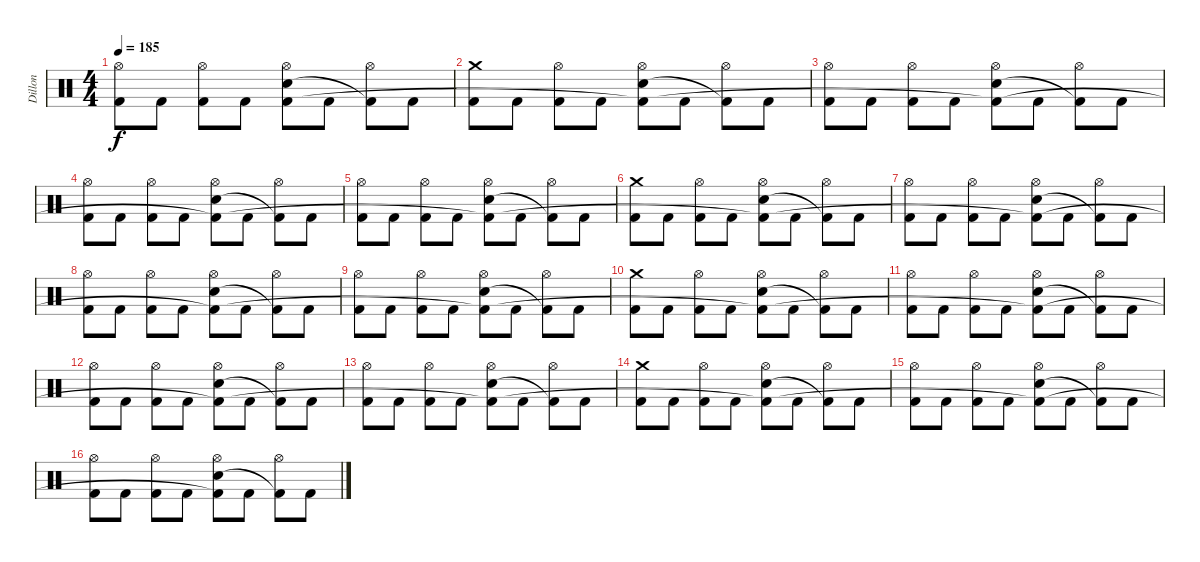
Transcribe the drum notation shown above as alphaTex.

\track ("Dillon" "Dillon") {instrument percussion}
\staff {score}
\articulation defaults
\ts (4 4)
\tempo 185
\clef neutral
\ks c
("Hi-Hat (open)" "Kick (hit) 2").8{dy f} "Kick (hit) 2".8 ("Hi-Hat (open)" "Kick (hit) 2").8 "Kick (hit) 2".8 ("Hi-Hat (open)" "Electric Snare (hit)" "Kick (hit) 2"{t}).8 "Kick (hit) 2".8 ("Hi-Hat (open)" "Kick (hit) 2"{t}).8 "Kick (hit) 2".8 |
("Crash medium (hit)" "Kick (hit) 2").8 "Kick (hit) 2".8 ("Hi-Hat (open)" "Kick (hit) 2").8 "Kick (hit) 2".8 ("Hi-Hat (open)" "Electric Snare (hit)" "Kick (hit) 2"{t}).8 "Kick (hit) 2".8 ("Hi-Hat (open)" "Kick (hit) 2"{t}).8 "Kick (hit) 2".8 |
("Hi-Hat (open)" "Kick (hit) 2").8 "Kick (hit) 2".8 ("Hi-Hat (open)" "Kick (hit) 2").8 "Kick (hit) 2".8 ("Hi-Hat (open)" "Electric Snare (hit)" "Kick (hit) 2"{t}).8 "Kick (hit) 2".8 ("Hi-Hat (open)" "Kick (hit) 2"{t}).8 "Kick (hit) 2".8 |
("Hi-Hat (open)" "Kick (hit) 2").8 "Kick (hit) 2".8 ("Hi-Hat (open)" "Kick (hit) 2").8 "Kick (hit) 2".8 ("Hi-Hat (open)" "Electric Snare (hit)" "Kick (hit) 2"{t}).8 "Kick (hit) 2".8 ("Hi-Hat (open)" "Kick (hit) 2"{t}).8 "Kick (hit) 2".8 |
("Hi-Hat (open)" "Kick (hit) 2").8 "Kick (hit) 2".8 ("Hi-Hat (open)" "Kick (hit) 2").8 "Kick (hit) 2".8 ("Hi-Hat (open)" "Electric Snare (hit)" "Kick (hit) 2"{t}).8 "Kick (hit) 2".8 ("Hi-Hat (open)" "Kick (hit) 2"{t}).8 "Kick (hit) 2".8 |
("Crash medium (hit)" "Kick (hit) 2").8 "Kick (hit) 2".8 ("Hi-Hat (open)" "Kick (hit) 2").8 "Kick (hit) 2".8 ("Hi-Hat (open)" "Electric Snare (hit)" "Kick (hit) 2"{t}).8 "Kick (hit) 2".8 ("Hi-Hat (open)" "Kick (hit) 2"{t}).8 "Kick (hit) 2".8 |
("Hi-Hat (open)" "Kick (hit) 2").8 "Kick (hit) 2".8 ("Hi-Hat (open)" "Kick (hit) 2").8 "Kick (hit) 2".8 ("Hi-Hat (open)" "Electric Snare (hit)" "Kick (hit) 2"{t}).8 "Kick (hit) 2".8 ("Hi-Hat (open)" "Kick (hit) 2"{t}).8 "Kick (hit) 2".8 |
("Hi-Hat (open)" "Kick (hit) 2").8 "Kick (hit) 2".8 ("Hi-Hat (open)" "Kick (hit) 2").8 "Kick (hit) 2".8 ("Hi-Hat (open)" "Electric Snare (hit)" "Kick (hit) 2"{t}).8 "Kick (hit) 2".8 ("Hi-Hat (open)" "Kick (hit) 2"{t}).8 "Kick (hit) 2".8 |
("Hi-Hat (open)" "Kick (hit) 2").8 "Kick (hit) 2".8 ("Hi-Hat (open)" "Kick (hit) 2").8 "Kick (hit) 2".8 ("Hi-Hat (open)" "Electric Snare (hit)" "Kick (hit) 2"{t}).8 "Kick (hit) 2".8 ("Hi-Hat (open)" "Kick (hit) 2"{t}).8 "Kick (hit) 2".8 |
("Crash medium (hit)" "Kick (hit) 2").8 "Kick (hit) 2".8 ("Hi-Hat (open)" "Kick (hit) 2").8 "Kick (hit) 2".8 ("Hi-Hat (open)" "Electric Snare (hit)" "Kick (hit) 2"{t}).8 "Kick (hit) 2".8 ("Hi-Hat (open)" "Kick (hit) 2"{t}).8 "Kick (hit) 2".8 |
("Hi-Hat (open)" "Kick (hit) 2").8 "Kick (hit) 2".8 ("Hi-Hat (open)" "Kick (hit) 2").8 "Kick (hit) 2".8 ("Hi-Hat (open)" "Electric Snare (hit)" "Kick (hit) 2"{t}).8 "Kick (hit) 2".8 ("Hi-Hat (open)" "Kick (hit) 2"{t}).8 "Kick (hit) 2".8 |
("Hi-Hat (open)" "Kick (hit) 2").8 "Kick (hit) 2".8 ("Hi-Hat (open)" "Kick (hit) 2").8 "Kick (hit) 2".8 ("Hi-Hat (open)" "Electric Snare (hit)" "Kick (hit) 2"{t}).8 "Kick (hit) 2".8 ("Hi-Hat (open)" "Kick (hit) 2"{t}).8 "Kick (hit) 2".8 |
("Hi-Hat (open)" "Kick (hit) 2").8 "Kick (hit) 2".8 ("Hi-Hat (open)" "Kick (hit) 2").8 "Kick (hit) 2".8 ("Hi-Hat (open)" "Electric Snare (hit)" "Kick (hit) 2"{t}).8 "Kick (hit) 2".8 ("Hi-Hat (open)" "Kick (hit) 2"{t}).8 "Kick (hit) 2".8 |
("Crash medium (hit)" "Kick (hit) 2").8 "Kick (hit) 2".8 ("Hi-Hat (open)" "Kick (hit) 2").8 "Kick (hit) 2".8 ("Hi-Hat (open)" "Electric Snare (hit)" "Kick (hit) 2"{t}).8 "Kick (hit) 2".8 ("Hi-Hat (open)" "Kick (hit) 2"{t}).8 "Kick (hit) 2".8 |
("Hi-Hat (open)" "Kick (hit) 2").8 "Kick (hit) 2".8 ("Hi-Hat (open)" "Kick (hit) 2").8 "Kick (hit) 2".8 ("Hi-Hat (open)" "Electric Snare (hit)" "Kick (hit) 2"{t}).8 "Kick (hit) 2".8 ("Hi-Hat (open)" "Kick (hit) 2"{t}).8 "Kick (hit) 2".8 |
("Hi-Hat (open)" "Kick (hit) 2").8 "Kick (hit) 2".8 ("Hi-Hat (open)" "Kick (hit) 2").8 "Kick (hit) 2".8 ("Hi-Hat (open)" "Electric Snare (hit)" "Kick (hit) 2"{t}).8 "Kick (hit) 2".8 ("Hi-Hat (open)" "Kick (hit) 2"{t}).8 "Kick (hit) 2".8
